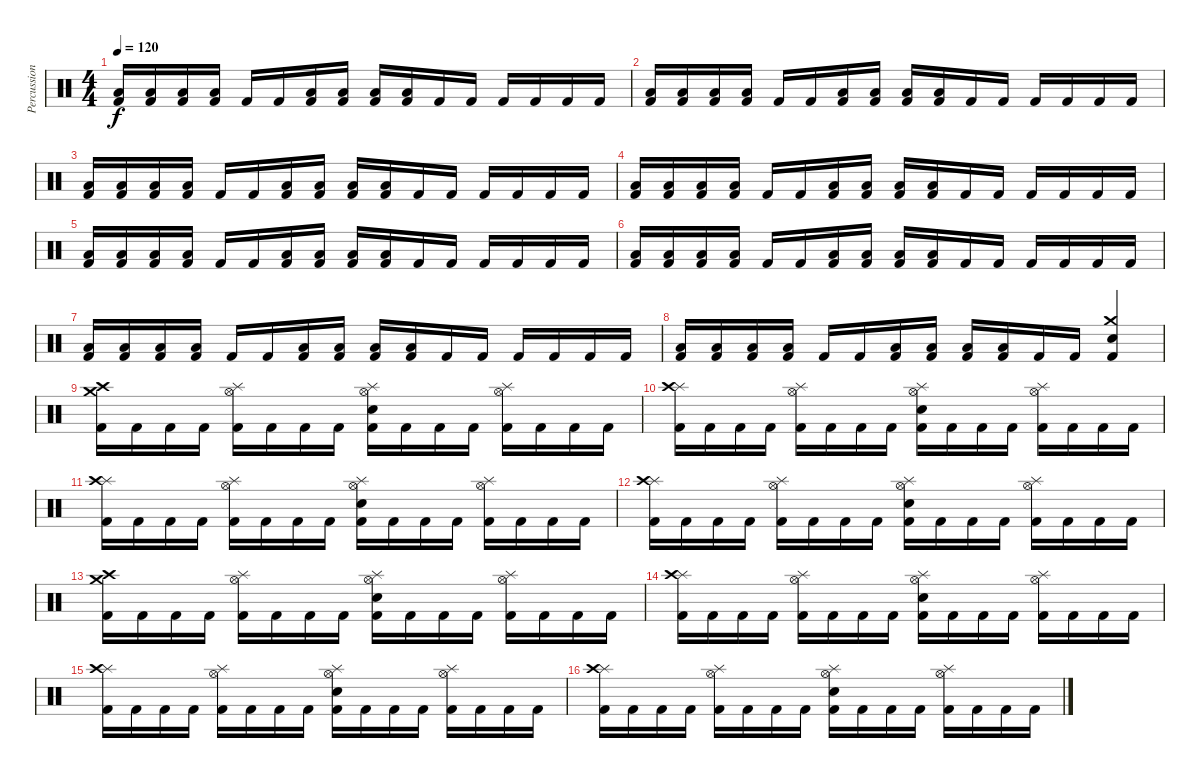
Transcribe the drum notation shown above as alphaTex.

\track ("Percussion" "Percussion") {instrument percussion}
\staff {score}
\articulation defaults
\ts (4 4)
\tempo 120
\clef neutral
\ks c
("Low Tom (hit)" "Kick (hit) 2").16{dy f} ("Low Tom (hit)" "Kick (hit) 2").16 ("Low Tom (hit)" "Kick (hit) 2").16 ("Low Tom (hit)" "Kick (hit) 2").16 "Kick (hit) 2".16 "Kick (hit) 2".16 ("Low Tom (hit)" "Kick (hit) 2").16 ("Low Tom (hit)" "Kick (hit) 2").16 ("Low Tom (hit)" "Kick (hit) 2").16 ("Low Tom (hit)" "Kick (hit) 2").16 "Kick (hit) 2".16 "Kick (hit) 2".16 "Kick (hit) 2".16 "Kick (hit) 2".16 "Kick (hit) 2".16 "Kick (hit) 2".16 |
("Low Tom (hit)" "Kick (hit) 2").16 ("Low Tom (hit)" "Kick (hit) 2").16 ("Low Tom (hit)" "Kick (hit) 2").16 ("Low Tom (hit)" "Kick (hit) 2").16 "Kick (hit) 2".16 "Kick (hit) 2".16 ("Low Tom (hit)" "Kick (hit) 2").16 ("Low Tom (hit)" "Kick (hit) 2").16 ("Low Tom (hit)" "Kick (hit) 2").16 ("Low Tom (hit)" "Kick (hit) 2").16 "Kick (hit) 2".16 "Kick (hit) 2".16 "Kick (hit) 2".16 "Kick (hit) 2".16 "Kick (hit) 2".16 "Kick (hit) 2".16 |
("Low Tom (hit)" "Kick (hit) 2").16 ("Low Tom (hit)" "Kick (hit) 2").16 ("Low Tom (hit)" "Kick (hit) 2").16 ("Low Tom (hit)" "Kick (hit) 2").16 "Kick (hit) 2".16 "Kick (hit) 2".16 ("Low Tom (hit)" "Kick (hit) 2").16 ("Low Tom (hit)" "Kick (hit) 2").16 ("Low Tom (hit)" "Kick (hit) 2").16 ("Low Tom (hit)" "Kick (hit) 2").16 "Kick (hit) 2".16 "Kick (hit) 2".16 "Kick (hit) 2".16 "Kick (hit) 2".16 "Kick (hit) 2".16 "Kick (hit) 2".16 |
("Low Tom (hit)" "Kick (hit) 2").16 ("Low Tom (hit)" "Kick (hit) 2").16 ("Low Tom (hit)" "Kick (hit) 2").16 ("Low Tom (hit)" "Kick (hit) 2").16 "Kick (hit) 2".16 "Kick (hit) 2".16 ("Low Tom (hit)" "Kick (hit) 2").16 ("Low Tom (hit)" "Kick (hit) 2").16 ("Low Tom (hit)" "Kick (hit) 2").16 ("Low Tom (hit)" "Kick (hit) 2").16 "Kick (hit) 2".16 "Kick (hit) 2".16 "Kick (hit) 2".16 "Kick (hit) 2".16 "Kick (hit) 2".16 "Kick (hit) 2".16 |
("Low Tom (hit)" "Kick (hit) 2").16 ("Low Tom (hit)" "Kick (hit) 2").16 ("Low Tom (hit)" "Kick (hit) 2").16 ("Low Tom (hit)" "Kick (hit) 2").16 "Kick (hit) 2".16 "Kick (hit) 2".16 ("Low Tom (hit)" "Kick (hit) 2").16 ("Low Tom (hit)" "Kick (hit) 2").16 ("Low Tom (hit)" "Kick (hit) 2").16 ("Low Tom (hit)" "Kick (hit) 2").16 "Kick (hit) 2".16 "Kick (hit) 2".16 "Kick (hit) 2".16 "Kick (hit) 2".16 "Kick (hit) 2".16 "Kick (hit) 2".16 |
("Low Tom (hit)" "Kick (hit) 2").16 ("Low Tom (hit)" "Kick (hit) 2").16 ("Low Tom (hit)" "Kick (hit) 2").16 ("Low Tom (hit)" "Kick (hit) 2").16 "Kick (hit) 2".16 "Kick (hit) 2".16 ("Low Tom (hit)" "Kick (hit) 2").16 ("Low Tom (hit)" "Kick (hit) 2").16 ("Low Tom (hit)" "Kick (hit) 2").16 ("Low Tom (hit)" "Kick (hit) 2").16 "Kick (hit) 2".16 "Kick (hit) 2".16 "Kick (hit) 2".16 "Kick (hit) 2".16 "Kick (hit) 2".16 "Kick (hit) 2".16 |
("Low Tom (hit)" "Kick (hit) 2").16 ("Low Tom (hit)" "Kick (hit) 2").16 ("Low Tom (hit)" "Kick (hit) 2").16 ("Low Tom (hit)" "Kick (hit) 2").16 "Kick (hit) 2".16 "Kick (hit) 2".16 ("Low Tom (hit)" "Kick (hit) 2").16 ("Low Tom (hit)" "Kick (hit) 2").16 ("Low Tom (hit)" "Kick (hit) 2").16 ("Low Tom (hit)" "Kick (hit) 2").16 "Kick (hit) 2".16 "Kick (hit) 2".16 "Kick (hit) 2".16 "Kick (hit) 2".16 "Kick (hit) 2".16 "Kick (hit) 2".16 |
("Low Tom (hit)" "Kick (hit) 2").16 ("Low Tom (hit)" "Kick (hit) 2").16 ("Low Tom (hit)" "Kick (hit) 2").16 ("Low Tom (hit)" "Kick (hit) 2").16 "Kick (hit) 2".16 "Kick (hit) 2".16 ("Low Tom (hit)" "Kick (hit) 2").16 ("Low Tom (hit)" "Kick (hit) 2").16 ("Low Tom (hit)" "Kick (hit) 2").16 ("Low Tom (hit)" "Kick (hit) 2").16 "Kick (hit) 2".16 "Kick (hit) 2".16 ("Crash medium (hit)" "Snare (hit) 2" "Kick (hit) 2").4 |
("Crash medium (hit)" "Crash high (hit)" "Kick (hit) 2").16 "Kick (hit) 2".16 "Kick (hit) 2".16 "Kick (hit) 2".16 ("Splash (hit)" "Hi-Hat (open)" "Kick (hit) 2").16 "Kick (hit) 2".16 "Kick (hit) 2".16 "Kick (hit) 2".16 ("Splash (hit)" "Hi-Hat (open)" "Snare (hit) 2" "Kick (hit) 2").16 "Kick (hit) 2".16 "Kick (hit) 2".16 "Kick (hit) 2".16 ("Splash (hit)" "Hi-Hat (open)" "Kick (hit) 2").16 "Kick (hit) 2".16 "Kick (hit) 2".16 "Kick (hit) 2".16 |
("Splash (hit)" "Crash high (hit)" "Kick (hit) 2").16 "Kick (hit) 2".16 "Kick (hit) 2".16 "Kick (hit) 2".16 ("Splash (hit)" "Hi-Hat (open)" "Kick (hit) 2").16 "Kick (hit) 2".16 "Kick (hit) 2".16 "Kick (hit) 2".16 ("Splash (hit)" "Hi-Hat (open)" "Snare (hit) 2" "Kick (hit) 2").16 "Kick (hit) 2".16 "Kick (hit) 2".16 "Kick (hit) 2".16 ("Splash (hit)" "Hi-Hat (open)" "Kick (hit) 2").16 "Kick (hit) 2".16 "Kick (hit) 2".16 "Kick (hit) 2".16 |
("Splash (hit)" "Crash high (hit)" "Kick (hit) 2").16 "Kick (hit) 2".16 "Kick (hit) 2".16 "Kick (hit) 2".16 ("Splash (hit)" "Hi-Hat (open)" "Kick (hit) 2").16 "Kick (hit) 2".16 "Kick (hit) 2".16 "Kick (hit) 2".16 ("Splash (hit)" "Hi-Hat (open)" "Snare (hit) 2" "Kick (hit) 2").16 "Kick (hit) 2".16 "Kick (hit) 2".16 "Kick (hit) 2".16 ("Splash (hit)" "Hi-Hat (open)" "Kick (hit) 2").16 "Kick (hit) 2".16 "Kick (hit) 2".16 "Kick (hit) 2".16 |
("Splash (hit)" "Crash high (hit)" "Kick (hit) 2").16 "Kick (hit) 2".16 "Kick (hit) 2".16 "Kick (hit) 2".16 ("Splash (hit)" "Hi-Hat (open)" "Kick (hit) 2").16 "Kick (hit) 2".16 "Kick (hit) 2".16 "Kick (hit) 2".16 ("Splash (hit)" "Hi-Hat (open)" "Snare (hit) 2" "Kick (hit) 2").16 "Kick (hit) 2".16 "Kick (hit) 2".16 "Kick (hit) 2".16 ("Splash (hit)" "Hi-Hat (open)" "Kick (hit) 2").16 "Kick (hit) 2".16 "Kick (hit) 2".16 "Kick (hit) 2".16 |
("Crash medium (hit)" "Crash high (hit)" "Kick (hit) 2").16 "Kick (hit) 2".16 "Kick (hit) 2".16 "Kick (hit) 2".16 ("Splash (hit)" "Hi-Hat (open)" "Kick (hit) 2").16 "Kick (hit) 2".16 "Kick (hit) 2".16 "Kick (hit) 2".16 ("Splash (hit)" "Hi-Hat (open)" "Snare (hit) 2" "Kick (hit) 2").16 "Kick (hit) 2".16 "Kick (hit) 2".16 "Kick (hit) 2".16 ("Splash (hit)" "Hi-Hat (open)" "Kick (hit) 2").16 "Kick (hit) 2".16 "Kick (hit) 2".16 "Kick (hit) 2".16 |
("Splash (hit)" "Crash high (hit)" "Kick (hit) 2").16 "Kick (hit) 2".16 "Kick (hit) 2".16 "Kick (hit) 2".16 ("Splash (hit)" "Hi-Hat (open)" "Kick (hit) 2").16 "Kick (hit) 2".16 "Kick (hit) 2".16 "Kick (hit) 2".16 ("Splash (hit)" "Hi-Hat (open)" "Snare (hit) 2" "Kick (hit) 2").16 "Kick (hit) 2".16 "Kick (hit) 2".16 "Kick (hit) 2".16 ("Splash (hit)" "Hi-Hat (open)" "Kick (hit) 2").16 "Kick (hit) 2".16 "Kick (hit) 2".16 "Kick (hit) 2".16 |
("Splash (hit)" "Crash high (hit)" "Kick (hit) 2").16 "Kick (hit) 2".16 "Kick (hit) 2".16 "Kick (hit) 2".16 ("Splash (hit)" "Hi-Hat (open)" "Kick (hit) 2").16 "Kick (hit) 2".16 "Kick (hit) 2".16 "Kick (hit) 2".16 ("Splash (hit)" "Hi-Hat (open)" "Snare (hit) 2" "Kick (hit) 2").16 "Kick (hit) 2".16 "Kick (hit) 2".16 "Kick (hit) 2".16 ("Splash (hit)" "Hi-Hat (open)" "Kick (hit) 2").16 "Kick (hit) 2".16 "Kick (hit) 2".16 "Kick (hit) 2".16 |
("Splash (hit)" "Crash high (hit)" "Kick (hit) 2").16 "Kick (hit) 2".16 "Kick (hit) 2".16 "Kick (hit) 2".16 ("Splash (hit)" "Hi-Hat (open)" "Kick (hit) 2").16 "Kick (hit) 2".16 "Kick (hit) 2".16 "Kick (hit) 2".16 ("Splash (hit)" "Hi-Hat (open)" "Snare (hit) 2" "Kick (hit) 2").16 "Kick (hit) 2".16 "Kick (hit) 2".16 "Kick (hit) 2".16 ("Splash (hit)" "Hi-Hat (open)" "Kick (hit) 2").16 "Kick (hit) 2".16 "Kick (hit) 2".16 "Kick (hit) 2".16
